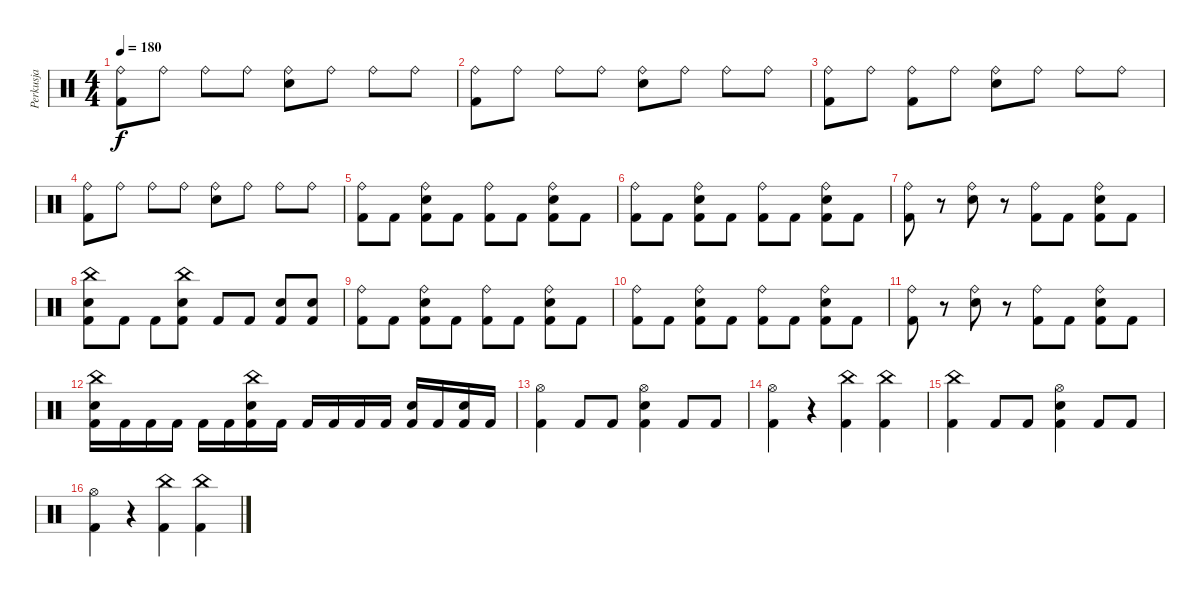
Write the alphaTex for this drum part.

\track ("Perkusja" "Perkusja") {instrument percussion}
\staff {score}
\articulation defaults
\ts (4 4)
\tempo 180
\clef neutral
\ks c
("Ride (bell)" "Kick (hit) 2").8{dy f} "Ride (bell)".8 "Ride (bell)".8 "Ride (bell)".8 ("Ride (bell)" "Snare (hit) 2").8 "Ride (bell)".8 "Ride (bell)".8 "Ride (bell)".8 |
("Ride (bell)" "Kick (hit) 2").8 "Ride (bell)".8 "Ride (bell)".8 "Ride (bell)".8 ("Ride (bell)" "Snare (hit) 2").8 "Ride (bell)".8 "Ride (bell)".8 "Ride (bell)".8 |
("Ride (bell)" "Kick (hit) 2").8 "Ride (bell)".8 ("Ride (bell)" "Kick (hit) 2").8 "Ride (bell)".8 ("Ride (bell)" "Snare (hit) 2").8 "Ride (bell)".8 "Ride (bell)".8 "Ride (bell)".8 |
("Ride (bell)" "Kick (hit) 2").8 "Ride (bell)".8 "Ride (bell)".8 "Ride (bell)".8 ("Ride (bell)" "Snare (hit) 2").8 "Ride (bell)".8 "Ride (bell)".8 "Ride (bell)".8 |
("Ride (bell)" "Kick (hit) 2").8 "Kick (hit) 2".8 ("Ride (bell)" "Snare (hit) 2" "Kick (hit) 2").8 "Kick (hit) 2".8 ("Ride (bell)" "Kick (hit) 2").8 "Kick (hit) 2".8 ("Ride (bell)" "Snare (hit) 2" "Kick (hit) 2").8 "Kick (hit) 2".8 |
("Ride (bell)" "Kick (hit) 2").8 "Kick (hit) 2".8 ("Ride (bell)" "Snare (hit) 2" "Kick (hit) 2").8 "Kick (hit) 2".8 ("Ride (bell)" "Kick (hit) 2").8 "Kick (hit) 2".8 ("Ride (bell)" "Snare (hit) 2" "Kick (hit) 2").8 "Kick (hit) 2".8 |
("Ride (bell)" "Kick (hit) 2").8 r.8 ("Ride (bell)" "Snare (hit) 2").8 r.8 ("Ride (bell)" "Kick (hit) 2").8 "Kick (hit) 2".8 ("Ride (bell)" "Snare (hit) 2" "Kick (hit) 2").8 "Kick (hit) 2".8 |
("China (hit)" "Snare (hit) 2" "Kick (hit) 2").8 "Kick (hit) 2".8 "Kick (hit) 2".8 ("China (hit)" "Snare (hit) 2" "Kick (hit) 2").8 "Kick (hit) 2".8 "Kick (hit) 2".8 ("Snare (hit) 2" "Kick (hit) 2").8 ("Snare (hit) 2" "Kick (hit) 2").8 |
("Ride (bell)" "Kick (hit) 2").8 "Kick (hit) 2".8 ("Ride (bell)" "Snare (hit) 2" "Kick (hit) 2").8 "Kick (hit) 2".8 ("Ride (bell)" "Kick (hit) 2").8 "Kick (hit) 2".8 ("Ride (bell)" "Snare (hit) 2" "Kick (hit) 2").8 "Kick (hit) 2".8 |
("Ride (bell)" "Kick (hit) 2").8 "Kick (hit) 2".8 ("Ride (bell)" "Snare (hit) 2" "Kick (hit) 2").8 "Kick (hit) 2".8 ("Ride (bell)" "Kick (hit) 2").8 "Kick (hit) 2".8 ("Ride (bell)" "Snare (hit) 2" "Kick (hit) 2").8 "Kick (hit) 2".8 |
("Ride (bell)" "Kick (hit) 2").8 r.8 ("Ride (bell)" "Snare (hit) 2").8 r.8 ("Ride (bell)" "Kick (hit) 2").8 "Kick (hit) 2".8 ("Ride (bell)" "Snare (hit) 2" "Kick (hit) 2").8 "Kick (hit) 2".8 |
("China (hit)" "Snare (hit) 2" "Kick (hit) 2").16 "Kick (hit) 2".16 "Kick (hit) 2".16 "Kick (hit) 2".16 "Kick (hit) 2".16 "Kick (hit) 2".16 ("China (hit)" "Snare (hit) 2" "Kick (hit) 2").16 "Kick (hit) 2".16 "Kick (hit) 2".16 "Kick (hit) 2".16 "Kick (hit) 2".16 "Kick (hit) 2".16 ("Snare (hit) 2" "Kick (hit) 2").16 "Kick (hit) 2".16 ("Snare (hit) 2" "Kick (hit) 2").16 "Kick (hit) 2".16 |
("Hi-Hat (open)" "Kick (hit) 2").4 "Kick (hit) 2".8 "Kick (hit) 2".8 ("Hi-Hat (open)" "Snare (hit) 2" "Kick (hit) 2").4 "Kick (hit) 2".8 "Kick (hit) 2".8 |
("Hi-Hat (open)" "Kick (hit) 2").4 r.4 ("China (hit)" "Kick (hit) 2").4 ("China (hit)" "Kick (hit) 2").4 |
("China (hit)" "Kick (hit) 2").4 "Kick (hit) 2".8 "Kick (hit) 2".8 ("Hi-Hat (open)" "Snare (hit) 2" "Kick (hit) 2").4 "Kick (hit) 2".8 "Kick (hit) 2".8 |
("Hi-Hat (open)" "Kick (hit) 2").4 r.4 ("China (hit)" "Kick (hit) 2").4 ("China (hit)" "Kick (hit) 2").4
